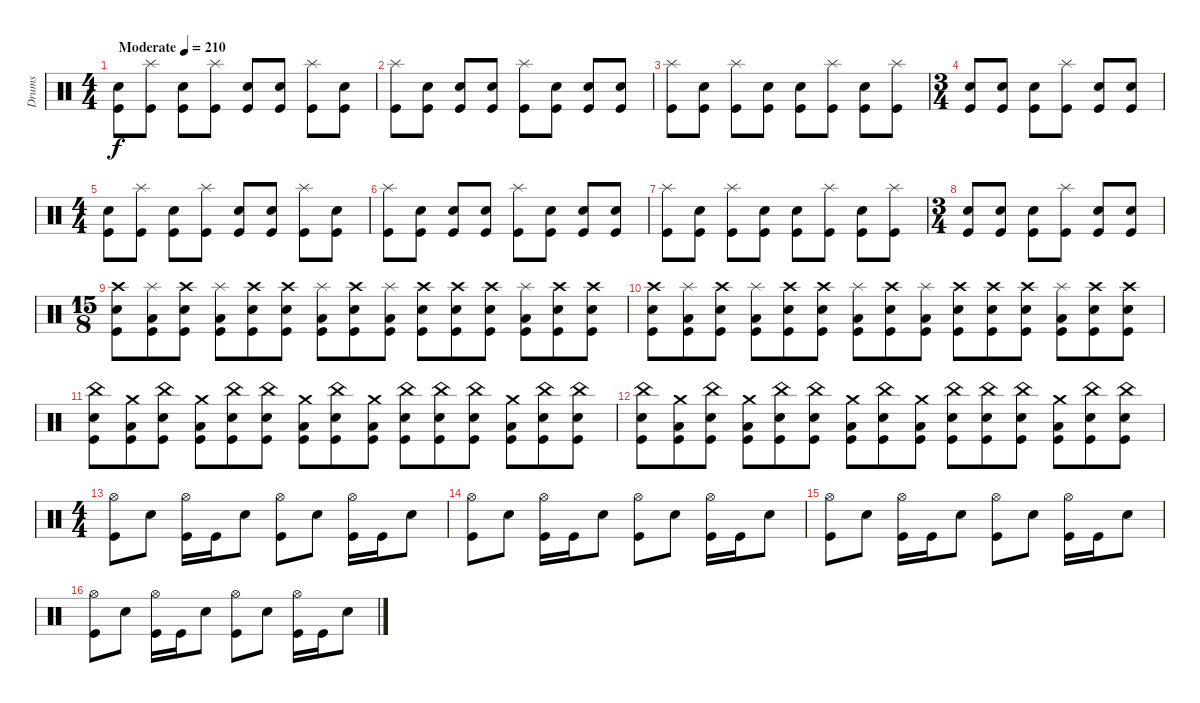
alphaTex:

\track ("Drums" "Drums") {instrument percussion}
\staff {score}
\articulation defaults
\ts (4 4)
\tempo (210 "Moderate")
\clef neutral
\ks c
("Snare (hit) 2" "Kick (hit)").8{dy f} ("Splash (hit)" "Kick (hit)").8 ("Snare (hit) 2" "Kick (hit)").8 ("Splash (hit)" "Kick (hit)").8 ("Snare (hit) 2" "Kick (hit)").8 ("Snare (hit) 2" "Kick (hit)").8 ("Splash (hit)" "Kick (hit)").8 ("Snare (hit) 2" "Kick (hit)").8 |
("Splash (hit)" "Kick (hit)").8 ("Snare (hit) 2" "Kick (hit)").8 ("Snare (hit) 2" "Kick (hit)").8 ("Snare (hit) 2" "Kick (hit)").8 ("Splash (hit)" "Kick (hit)").8 ("Snare (hit) 2" "Kick (hit)").8 ("Snare (hit) 2" "Kick (hit)").8 ("Snare (hit) 2" "Kick (hit)").8 |
("Splash (hit)" "Kick (hit)").8 ("Snare (hit) 2" "Kick (hit)").8 ("Splash (hit)" "Kick (hit)").8 ("Snare (hit) 2" "Kick (hit)").8 ("Snare (hit) 2" "Kick (hit)").8 ("Splash (hit)" "Kick (hit)").8 ("Snare (hit) 2" "Kick (hit)").8 ("Splash (hit)" "Kick (hit)").8 |
\ts (3 4)
("Snare (hit) 2" "Kick (hit)").8 ("Snare (hit) 2" "Kick (hit)").8 ("Snare (hit) 2" "Kick (hit)").8 ("Splash (hit)" "Kick (hit)").8 ("Snare (hit) 2" "Kick (hit)").8 ("Snare (hit) 2" "Kick (hit)").8 |
\ts (4 4)
("Snare (hit) 2" "Kick (hit)").8 ("Splash (hit)" "Kick (hit)").8 ("Snare (hit) 2" "Kick (hit)").8 ("Splash (hit)" "Kick (hit)").8 ("Snare (hit) 2" "Kick (hit)").8 ("Snare (hit) 2" "Kick (hit)").8 ("Splash (hit)" "Kick (hit)").8 ("Snare (hit) 2" "Kick (hit)").8 |
("Splash (hit)" "Kick (hit)").8 ("Snare (hit) 2" "Kick (hit)").8 ("Snare (hit) 2" "Kick (hit)").8 ("Snare (hit) 2" "Kick (hit)").8 ("Splash (hit)" "Kick (hit)").8 ("Snare (hit) 2" "Kick (hit)").8 ("Snare (hit) 2" "Kick (hit)").8 ("Snare (hit) 2" "Kick (hit)").8 |
("Splash (hit)" "Kick (hit)").8 ("Snare (hit) 2" "Kick (hit)").8 ("Splash (hit)" "Kick (hit)").8 ("Snare (hit) 2" "Kick (hit)").8 ("Snare (hit) 2" "Kick (hit)").8 ("Splash (hit)" "Kick (hit)").8 ("Snare (hit) 2" "Kick (hit)").8 ("Splash (hit)" "Kick (hit)").8 |
\ts (3 4)
("Snare (hit) 2" "Kick (hit)").8 ("Snare (hit) 2" "Kick (hit)").8 ("Snare (hit) 2" "Kick (hit)").8 ("Splash (hit)" "Kick (hit)").8 ("Snare (hit) 2" "Kick (hit)").8 ("Snare (hit) 2" "Kick (hit)").8 |
\ts (15 8)
("Crash high (hit)" "Snare (hit) 2" "Kick (hit)").8 ("Splash (hit)" "Low Floor Tom (hit)" "Kick (hit)").8 ("Crash high (hit)" "Snare (hit) 2" "Kick (hit)").8 ("Splash (hit)" "Low Floor Tom (hit)" "Kick (hit)").8 ("Crash high (hit)" "Snare (hit) 2" "Kick (hit)").8 ("Crash high (hit)" "Snare (hit) 2" "Kick (hit)").8 ("Splash (hit)" "Low Floor Tom (hit)" "Kick (hit)").8 ("Crash high (hit)" "Snare (hit) 2" "Kick (hit)").8 ("Splash (hit)" "Low Floor Tom (hit)" "Kick (hit)").8 ("Crash high (hit)" "Snare (hit) 2" "Kick (hit)").8 ("Crash high (hit)" "Snare (hit) 2" "Kick (hit)").8 ("Crash high (hit)" "Snare (hit) 2" "Kick (hit)").8 ("Splash (hit)" "Low Floor Tom (hit)" "Kick (hit)").8 ("Crash high (hit)" "Snare (hit) 2" "Kick (hit)").8 ("Crash high (hit)" "Snare (hit) 2" "Kick (hit)").8 |
("Crash high (hit)" "Snare (hit) 2" "Kick (hit)").8 ("Splash (hit)" "Low Floor Tom (hit)" "Kick (hit)").8 ("Crash high (hit)" "Snare (hit) 2" "Kick (hit)").8 ("Splash (hit)" "Low Floor Tom (hit)" "Kick (hit)").8 ("Crash high (hit)" "Snare (hit) 2" "Kick (hit)").8 ("Crash high (hit)" "Snare (hit) 2" "Kick (hit)").8 ("Splash (hit)" "Low Floor Tom (hit)" "Kick (hit)").8 ("Crash high (hit)" "Snare (hit) 2" "Kick (hit)").8 ("Splash (hit)" "Low Floor Tom (hit)" "Kick (hit)").8 ("Crash high (hit)" "Snare (hit) 2" "Kick (hit)").8 ("Crash high (hit)" "Snare (hit) 2" "Kick (hit)").8 ("Crash high (hit)" "Snare (hit) 2" "Kick (hit)").8 ("Splash (hit)" "Low Floor Tom (hit)" "Kick (hit)").8 ("Crash high (hit)" "Snare (hit) 2" "Kick (hit)").8 ("Crash high (hit)" "Snare (hit) 2" "Kick (hit)").8 |
("China (hit)" "Snare (hit) 2" "Kick (hit)").8 ("Crash medium (hit)" "Low Floor Tom (hit)" "Kick (hit)").8 ("China (hit)" "Snare (hit) 2" "Kick (hit)").8 ("Crash medium (hit)" "Low Floor Tom (hit)" "Kick (hit)").8 ("China (hit)" "Snare (hit) 2" "Kick (hit)").8 ("China (hit)" "Snare (hit) 2" "Kick (hit)").8 ("Crash medium (hit)" "Low Floor Tom (hit)" "Kick (hit)").8 ("China (hit)" "Snare (hit) 2" "Kick (hit)").8 ("Crash medium (hit)" "Low Floor Tom (hit)" "Kick (hit)").8 ("China (hit)" "Snare (hit) 2" "Kick (hit)").8 ("China (hit)" "Snare (hit) 2" "Kick (hit)").8 ("China (hit)" "Snare (hit) 2" "Kick (hit)").8 ("Crash medium (hit)" "Low Floor Tom (hit)" "Kick (hit)").8 ("China (hit)" "Snare (hit) 2" "Kick (hit)").8 ("China (hit)" "Snare (hit) 2" "Kick (hit)").8 |
("China (hit)" "Snare (hit) 2" "Kick (hit)").8 ("Crash medium (hit)" "Low Floor Tom (hit)" "Kick (hit)").8 ("China (hit)" "Snare (hit) 2" "Kick (hit)").8 ("Crash medium (hit)" "Low Floor Tom (hit)" "Kick (hit)").8 ("China (hit)" "Snare (hit) 2" "Kick (hit)").8 ("China (hit)" "Snare (hit) 2" "Kick (hit)").8 ("Crash medium (hit)" "Low Floor Tom (hit)" "Kick (hit)").8 ("China (hit)" "Snare (hit) 2" "Kick (hit)").8 ("Crash medium (hit)" "Low Floor Tom (hit)" "Kick (hit)").8 ("China (hit)" "Snare (hit) 2" "Kick (hit)").8 ("China (hit)" "Snare (hit) 2" "Kick (hit)").8 ("China (hit)" "Snare (hit) 2" "Kick (hit)").8 ("Crash medium (hit)" "Low Floor Tom (hit)" "Kick (hit)").8 ("China (hit)" "Snare (hit) 2" "Kick (hit)").8 ("China (hit)" "Snare (hit) 2" "Kick (hit)").8 |
\ts (4 4)
("Hi-Hat (open)" "Kick (hit)").8 "Snare (hit) 2".8 ("Hi-Hat (open)" "Kick (hit)").16 "Kick (hit)".16 "Snare (hit) 2".8 ("Hi-Hat (open)" "Kick (hit)").8 "Snare (hit) 2".8 ("Hi-Hat (open)" "Kick (hit)").16 "Kick (hit)".16 "Snare (hit) 2".8 |
("Hi-Hat (open)" "Kick (hit)").8 "Snare (hit) 2".8 ("Hi-Hat (open)" "Kick (hit)").16 "Kick (hit)".16 "Snare (hit) 2".8 ("Hi-Hat (open)" "Kick (hit)").8 "Snare (hit) 2".8 ("Hi-Hat (open)" "Kick (hit)").16 "Kick (hit)".16 "Snare (hit) 2".8 |
("Hi-Hat (open)" "Kick (hit)").8 "Snare (hit) 2".8 ("Hi-Hat (open)" "Kick (hit)").16 "Kick (hit)".16 "Snare (hit) 2".8 ("Hi-Hat (open)" "Kick (hit)").8 "Snare (hit) 2".8 ("Hi-Hat (open)" "Kick (hit)").16 "Kick (hit)".16 "Snare (hit) 2".8 |
("Hi-Hat (open)" "Kick (hit)").8 "Snare (hit) 2".8 ("Hi-Hat (open)" "Kick (hit)").16 "Kick (hit)".16 "Snare (hit) 2".8 ("Hi-Hat (open)" "Kick (hit)").8 "Snare (hit) 2".8 ("Hi-Hat (open)" "Kick (hit)").16 "Kick (hit)".16 "Snare (hit) 2".8
